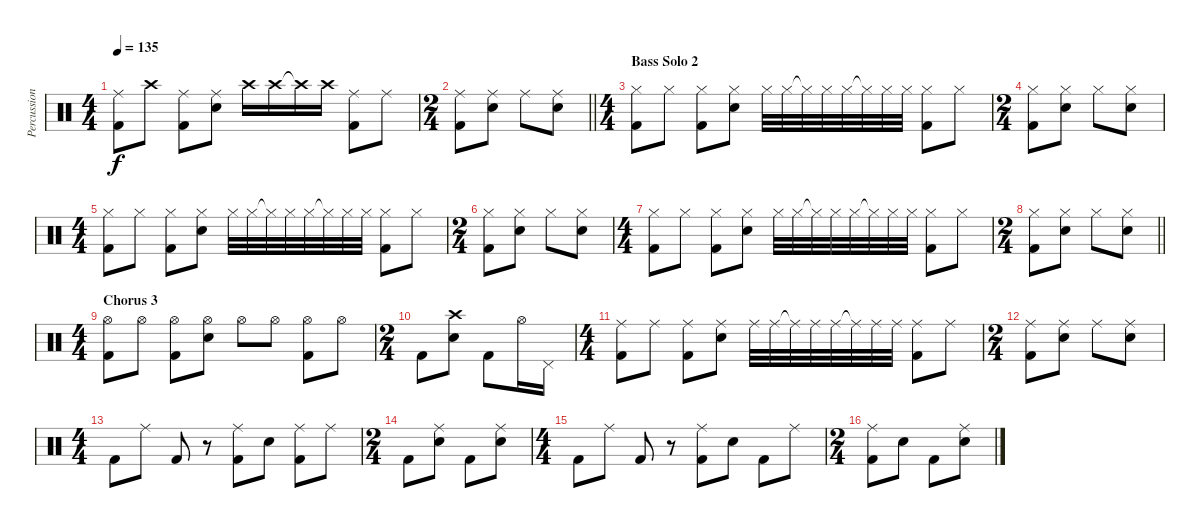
\track ("Percussion" "Percussion") {instrument percussion}
\staff {score}
\articulation defaults
\ts (4 4)
\tempo 135
\clef neutral
\ks c
("Ride (middle)" "Kick (hit) 2").8{dy f} "Crash high (hit)".8 ("Ride (middle)" "Kick (hit) 2").8 ("Ride (middle)" "Electric Snare (hit)").8 "Crash high (hit)".16 "Crash high (hit)".16 "Crash high (hit)"{t}.16 "Crash high (hit)".16 ("Ride (middle)" "Kick (hit) 2").8 "Ride (middle)".8 |
\ts (2 4)
\barLineRight lightlight
("Ride (middle)" "Kick (hit) 2").8 ("Ride (middle)" "Electric Snare (hit)").8 "Ride (middle)".8 ("Ride (middle)" "Electric Snare (hit)").8 |
\ts (4 4)
\section ("" "Bass Solo 2")
("Hi-Hat (closed)" "Kick (hit) 2").8{volume 11} "Hi-Hat (closed)".8 ("Hi-Hat (closed)" "Kick (hit) 2").8 ("Hi-Hat (closed)" "Electric Snare (hit)").8 "Hi-Hat (closed)".32 "Hi-Hat (closed)".32 "Hi-Hat (closed)"{t}.32 "Hi-Hat (closed)".32 "Hi-Hat (closed)".32 "Hi-Hat (closed)"{t}.32 "Hi-Hat (closed)".32 "Hi-Hat (closed)".32 ("Hi-Hat (closed)" "Kick (hit) 2").8 "Hi-Hat (closed)".8 |
\ts (2 4)
("Hi-Hat (closed)" "Kick (hit) 2").8 ("Hi-Hat (closed)" "Electric Snare (hit)").8 "Hi-Hat (closed)".8 ("Hi-Hat (closed)" "Electric Snare (hit)").8 |
\ts (4 4)
("Hi-Hat (closed)" "Kick (hit) 2").8 "Hi-Hat (closed)".8 ("Hi-Hat (closed)" "Kick (hit) 2").8 ("Hi-Hat (closed)" "Electric Snare (hit)").8 "Hi-Hat (closed)".32 "Hi-Hat (closed)".32 "Hi-Hat (closed)"{t}.32 "Hi-Hat (closed)".32 "Hi-Hat (closed)".32 "Hi-Hat (closed)"{t}.32 "Hi-Hat (closed)".32 "Hi-Hat (closed)".32 ("Hi-Hat (closed)" "Kick (hit) 2").8 "Hi-Hat (closed)".8 |
\ts (2 4)
("Hi-Hat (closed)" "Kick (hit) 2").8 ("Hi-Hat (closed)" "Electric Snare (hit)").8 "Hi-Hat (closed)".8 ("Hi-Hat (closed)" "Electric Snare (hit)").8 |
\ts (4 4)
("Hi-Hat (closed)" "Kick (hit) 2").8 "Hi-Hat (closed)".8 ("Hi-Hat (closed)" "Kick (hit) 2").8 ("Hi-Hat (closed)" "Electric Snare (hit)").8 "Hi-Hat (closed)".32 "Hi-Hat (closed)".32 "Hi-Hat (closed)"{t}.32 "Hi-Hat (closed)".32 "Hi-Hat (closed)".32 "Hi-Hat (closed)"{t}.32 "Hi-Hat (closed)".32 "Hi-Hat (closed)".32 ("Hi-Hat (closed)" "Kick (hit) 2").8 "Hi-Hat (closed)".8 |
\ts (2 4)
\barLineRight lightlight
("Hi-Hat (closed)" "Kick (hit) 2").8 ("Hi-Hat (closed)" "Electric Snare (hit)").8 "Hi-Hat (closed)".8 ("Hi-Hat (closed)" "Electric Snare (hit)").8 |
\ts (4 4)
\section ("" "Chorus 3")
("Hi-Hat (open)" "Kick (hit) 2").8 "Hi-Hat (open)".8 ("Hi-Hat (open)" "Kick (hit) 2").8 ("Hi-Hat (open)" "Electric Snare (hit)").8 "Hi-Hat (open)".8 "Hi-Hat (open)".8 ("Hi-Hat (open)" "Kick (hit) 2").8 "Hi-Hat (open)".8 |
\ts (2 4)
"Kick (hit) 2".8 ("Crash high (hit)" "Electric Snare (hit)").8 "Kick (hit) 2".8 "Hi-Hat (open)".16 "Pedal Hi-Hat (hit)".16 |
\ts (4 4)
("Ride (middle)" "Kick (hit) 2").8 "Ride (middle)".8 ("Ride (middle)" "Kick (hit) 2").8 ("Ride (middle)" "Electric Snare (hit)").8 "Ride (middle)".32 "Ride (middle)".32 "Ride (middle)"{t}.32 "Ride (middle)".32 "Ride (middle)".32 "Ride (middle)"{t}.32 "Ride (middle)".32 "Ride (middle)".32 ("Ride (middle)" "Kick (hit) 2").8 "Ride (middle)".8 |
\ts (2 4)
("Ride (middle)" "Kick (hit) 2").8 ("Ride (middle)" "Electric Snare (hit)").8 "Ride (middle)".8 ("Ride (middle)" "Electric Snare (hit)").8 |
\ts (4 4)
"Kick (hit) 2".8 "Ride (middle)".8 "Kick (hit) 2".8 r.8 ("Ride (middle)" "Kick (hit) 2").8 "Electric Snare (hit)".8 ("Ride (middle)" "Kick (hit) 2").8 "Ride (middle)".8 |
\ts (2 4)
"Kick (hit) 2".8 ("Ride (middle)" "Electric Snare (hit)").8 "Kick (hit) 2".8 ("Ride (middle)" "Electric Snare (hit)").8 |
\ts (4 4)
"Kick (hit) 2".8 "Ride (middle)".8 "Kick (hit) 2".8 r.8 ("Ride (middle)" "Kick (hit) 2").8 "Electric Snare (hit)".8 "Kick (hit) 2".8 "Ride (middle)".8 |
\ts (2 4)
("Ride (middle)" "Kick (hit) 2").8 "Electric Snare (hit)".8 "Kick (hit) 2".8 ("Ride (middle)" "Electric Snare (hit)").8
